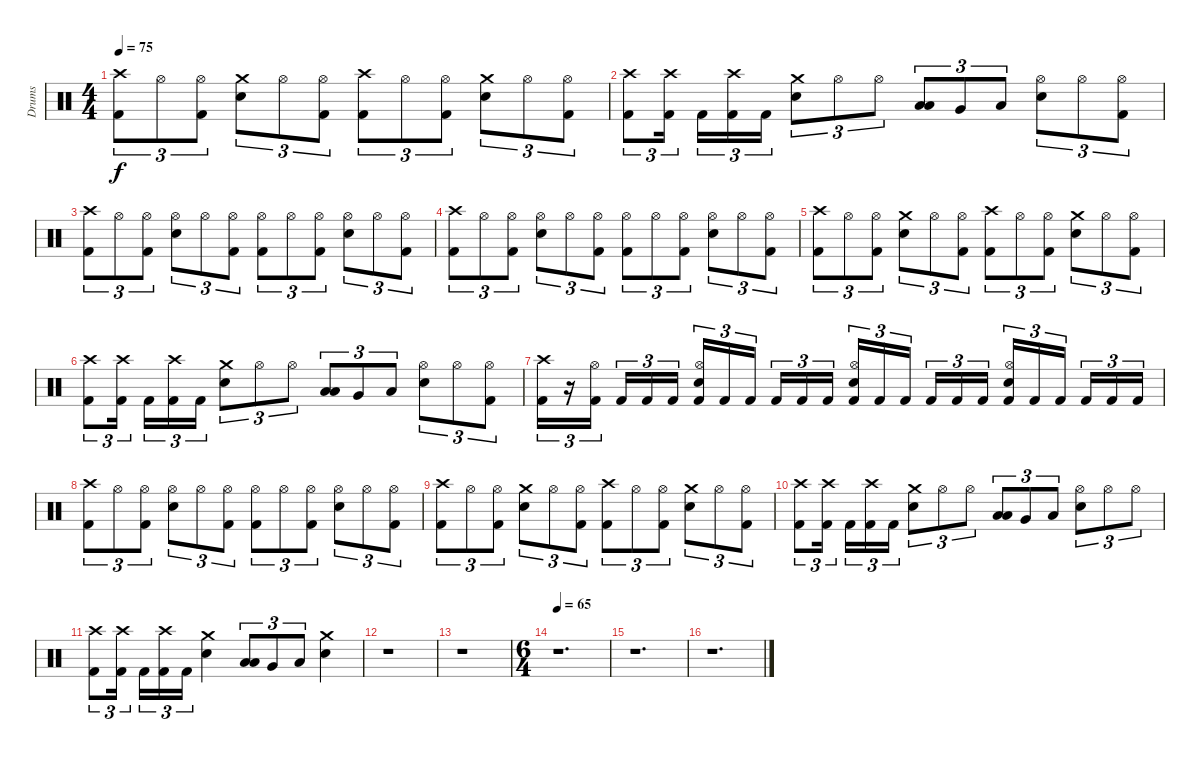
\track ("Drums" "Drums") {instrument percussion}
\staff {score}
\articulation defaults
\ts (4 4)
\tempo 75
\clef neutral
\ks c
("Crash high (hit)" "Kick (hit) 2").8{tu (3 2) dy f} "Hi-Hat (open)".8{tu (3 2)} ("Hi-Hat (open)" "Kick (hit) 2").8{tu (3 2)} ("Crash medium (hit)" "Electric Snare (hit)").8{tu (3 2)} "Hi-Hat (open)".8{tu (3 2)} ("Hi-Hat (open)" "Kick (hit) 2").8{tu (3 2)} ("Crash high (hit)" "Kick (hit) 2").8{tu (3 2)} "Hi-Hat (open)".8{tu (3 2)} ("Hi-Hat (open)" "Kick (hit) 2").8{tu (3 2)} ("Crash medium (hit)" "Electric Snare (hit)").8{tu (3 2)} "Hi-Hat (open)".8{tu (3 2)} ("Hi-Hat (open)" "Kick (hit) 2").8{tu (3 2)} |
("Crash high (hit)" "Kick (hit) 2").8{tu (3 2)} ("Crash high (hit)" "Kick (hit) 2").16{tu (3 2)} "Kick (hit) 2".16{tu (3 2)} ("Crash high (hit)" "Kick (hit) 2").16{tu (3 2)} "Kick (hit) 2".16{tu (3 2)} ("Crash medium (hit)" "Electric Snare (hit)").8{tu (3 2)} "Hi-Hat (open)".8{tu (3 2)} "Hi-Hat (open)".8{tu (3 2)} ("Low Tom (hit)" "Low Tom (hit)").8{tu (3 2) bu 60} "Very Low Tom (hit)".8{tu (3 2)} "Low Floor Tom (hit)".8{tu (3 2)} ("Hi-Hat (open)" "Electric Snare (hit)").8{tu (3 2)} "Hi-Hat (open)".8{tu (3 2)} ("Hi-Hat (open)" "Kick (hit) 2").8{tu (3 2)} |
("Crash high (hit)" "Kick (hit) 2").8{tu (3 2)} "Hi-Hat (open)".8{tu (3 2)} ("Hi-Hat (open)" "Kick (hit) 2").8{tu (3 2)} ("Hi-Hat (open)" "Electric Snare (hit)").8{tu (3 2)} "Hi-Hat (open)".8{tu (3 2)} ("Hi-Hat (open)" "Kick (hit) 2").8{tu (3 2)} ("Hi-Hat (open)" "Kick (hit) 2").8{tu (3 2)} "Hi-Hat (open)".8{tu (3 2)} ("Hi-Hat (open)" "Kick (hit) 2").8{tu (3 2)} ("Hi-Hat (open)" "Electric Snare (hit)").8{tu (3 2)} "Hi-Hat (open)".8{tu (3 2)} ("Hi-Hat (open)" "Kick (hit) 2").8{tu (3 2)} |
("Crash high (hit)" "Kick (hit) 2").8{tu (3 2)} "Hi-Hat (open)".8{tu (3 2)} ("Hi-Hat (open)" "Kick (hit) 2").8{tu (3 2)} ("Hi-Hat (open)" "Electric Snare (hit)").8{tu (3 2)} "Hi-Hat (open)".8{tu (3 2)} ("Hi-Hat (open)" "Kick (hit) 2").8{tu (3 2)} ("Hi-Hat (open)" "Kick (hit) 2").8{tu (3 2)} "Hi-Hat (open)".8{tu (3 2)} ("Hi-Hat (open)" "Kick (hit) 2").8{tu (3 2)} ("Hi-Hat (open)" "Electric Snare (hit)").8{tu (3 2)} "Hi-Hat (open)".8{tu (3 2)} ("Hi-Hat (open)" "Kick (hit) 2").8{tu (3 2)} |
("Crash high (hit)" "Kick (hit) 2").8{tu (3 2)} "Hi-Hat (open)".8{tu (3 2)} ("Hi-Hat (open)" "Kick (hit) 2").8{tu (3 2)} ("Crash medium (hit)" "Electric Snare (hit)").8{tu (3 2)} "Hi-Hat (open)".8{tu (3 2)} ("Hi-Hat (open)" "Kick (hit) 2").8{tu (3 2)} ("Crash high (hit)" "Kick (hit) 2").8{tu (3 2)} "Hi-Hat (open)".8{tu (3 2)} ("Hi-Hat (open)" "Kick (hit) 2").8{tu (3 2)} ("Crash medium (hit)" "Electric Snare (hit)").8{tu (3 2)} "Hi-Hat (open)".8{tu (3 2)} ("Hi-Hat (open)" "Kick (hit) 2").8{tu (3 2)} |
("Crash high (hit)" "Kick (hit) 2").8{tu (3 2)} ("Crash high (hit)" "Kick (hit) 2").16{tu (3 2)} "Kick (hit) 2".16{tu (3 2)} ("Crash high (hit)" "Kick (hit) 2").16{tu (3 2)} "Kick (hit) 2".16{tu (3 2)} ("Crash medium (hit)" "Electric Snare (hit)").8{tu (3 2)} "Hi-Hat (open)".8{tu (3 2)} "Hi-Hat (open)".8{tu (3 2)} ("Low Tom (hit)" "Low Tom (hit)").8{tu (3 2) bu 60} "Very Low Tom (hit)".8{tu (3 2)} "Low Floor Tom (hit)".8{tu (3 2)} ("Hi-Hat (open)" "Electric Snare (hit)").8{tu (3 2)} "Hi-Hat (open)".8{tu (3 2)} ("Hi-Hat (open)" "Kick (hit) 2").8{tu (3 2)} |
("Crash high (hit)" "Kick (hit) 2").16{tu (3 2)} r.16{tu (3 2)} ("Hi-Hat (open)" "Kick (hit) 2").16{tu (3 2)} "Kick (hit) 2".16{tu (3 2)} "Kick (hit) 2".16{tu (3 2)} "Kick (hit) 2".16{tu (3 2)} ("Hi-Hat (open)" "Electric Snare (hit)" "Kick (hit) 2").16{tu (3 2)} "Kick (hit) 2".16{tu (3 2)} "Kick (hit) 2".16{tu (3 2)} "Kick (hit) 2".16{tu (3 2)} "Kick (hit) 2".16{tu (3 2)} "Kick (hit) 2".16{tu (3 2)} ("Hi-Hat (open)" "Electric Snare (hit)" "Kick (hit) 2").16{tu (3 2)} "Kick (hit) 2".16{tu (3 2)} "Kick (hit) 2".16{tu (3 2)} "Kick (hit) 2".16{tu (3 2)} "Kick (hit) 2".16{tu (3 2)} "Kick (hit) 2".16{tu (3 2)} ("Hi-Hat (open)" "Electric Snare (hit)" "Kick (hit) 2").16{tu (3 2)} "Kick (hit) 2".16{tu (3 2)} "Kick (hit) 2".16{tu (3 2)} "Kick (hit) 2".16{tu (3 2)} "Kick (hit) 2".16{tu (3 2)} "Kick (hit) 2".16{tu (3 2)} |
("Crash high (hit)" "Kick (hit) 2").8{tu (3 2)} "Hi-Hat (open)".8{tu (3 2)} ("Hi-Hat (open)" "Kick (hit) 2").8{tu (3 2)} ("Hi-Hat (open)" "Electric Snare (hit)").8{tu (3 2)} "Hi-Hat (open)".8{tu (3 2)} ("Hi-Hat (open)" "Kick (hit) 2").8{tu (3 2)} ("Hi-Hat (open)" "Kick (hit) 2").8{tu (3 2)} "Hi-Hat (open)".8{tu (3 2)} ("Hi-Hat (open)" "Kick (hit) 2").8{tu (3 2)} ("Hi-Hat (open)" "Electric Snare (hit)").8{tu (3 2)} "Hi-Hat (open)".8{tu (3 2)} ("Hi-Hat (open)" "Kick (hit) 2").8{tu (3 2)} |
("Crash high (hit)" "Kick (hit) 2").8{tu (3 2)} "Hi-Hat (open)".8{tu (3 2)} ("Hi-Hat (open)" "Kick (hit) 2").8{tu (3 2)} ("Crash medium (hit)" "Electric Snare (hit)").8{tu (3 2)} "Hi-Hat (open)".8{tu (3 2)} ("Hi-Hat (open)" "Kick (hit) 2").8{tu (3 2)} ("Crash high (hit)" "Kick (hit) 2").8{tu (3 2)} "Hi-Hat (open)".8{tu (3 2)} ("Hi-Hat (open)" "Kick (hit) 2").8{tu (3 2)} ("Crash medium (hit)" "Electric Snare (hit)").8{tu (3 2)} "Hi-Hat (open)".8{tu (3 2)} ("Hi-Hat (open)" "Kick (hit) 2").8{tu (3 2)} |
("Crash high (hit)" "Kick (hit) 2").8{tu (3 2)} ("Crash high (hit)" "Kick (hit) 2").16{tu (3 2)} "Kick (hit) 2".16{tu (3 2)} ("Crash high (hit)" "Kick (hit) 2").16{tu (3 2)} "Kick (hit) 2".16{tu (3 2)} ("Crash medium (hit)" "Electric Snare (hit)").8{tu (3 2)} "Hi-Hat (open)".8{tu (3 2)} "Hi-Hat (open)".8{tu (3 2)} ("Low Tom (hit)" "Low Tom (hit)").8{tu (3 2) bu 60} "Very Low Tom (hit)".8{tu (3 2)} "Low Floor Tom (hit)".8{tu (3 2)} ("Hi-Hat (open)" "Electric Snare (hit)").8{tu (3 2)} "Hi-Hat (open)".8{tu (3 2)} "Hi-Hat (open)".8{tu (3 2)} |
("Crash high (hit)" "Kick (hit) 2").8{tu (3 2)} ("Crash high (hit)" "Kick (hit) 2").16{tu (3 2)} "Kick (hit) 2".16{tu (3 2)} ("Crash high (hit)" "Kick (hit) 2").16{tu (3 2)} "Kick (hit) 2".16{tu (3 2)} ("Crash medium (hit)" "Electric Snare (hit)").4 ("Low Tom (hit)" "Low Tom (hit)").8{tu (3 2) bu 60} "Very Low Tom (hit)".8{tu (3 2)} "Low Floor Tom (hit)".8{tu (3 2)} ("Crash medium (hit)" "Electric Snare (hit)").4 |
r.1 |
r.1 |
\ts (6 4)
\tempo 65
r.1{d} |
r.1{d} |
r.1{d}
